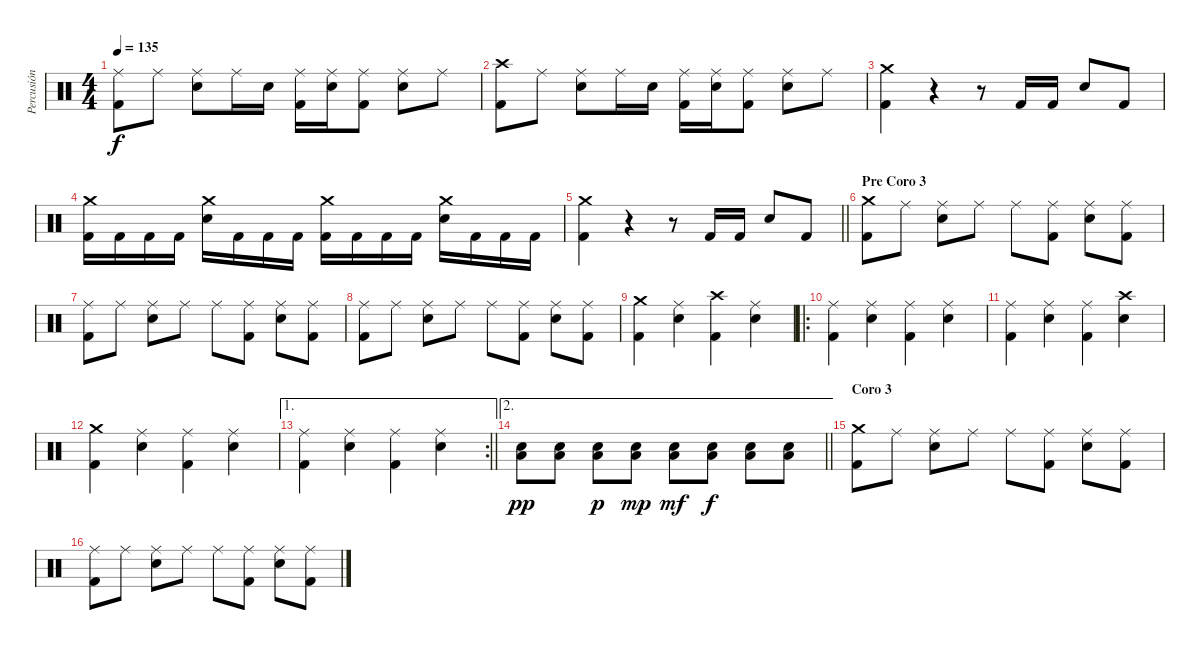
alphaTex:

\track ("Percusión" "Percusión") {instrument percussion}
\staff {score}
\articulation defaults
\ts (4 4)
\tempo 135
\clef neutral
\ks c
("Ride (middle)" "Kick (hit) 2").8{dy f} "Ride (middle)".8 ("Ride (middle)" "Electric Snare (hit)").8 "Ride (middle)".16 "Electric Snare (hit)".16 ("Ride (middle)" "Kick (hit) 2").16 ("Ride (middle)" "Electric Snare (hit)").16 ("Ride (middle)" "Kick (hit) 2").8 ("Ride (middle)" "Electric Snare (hit)").8 "Ride (middle)".8 |
("Crash high (hit)" "Kick (hit) 2").8 "Ride (middle)".8 ("Ride (middle)" "Electric Snare (hit)").8 "Ride (middle)".16 "Electric Snare (hit)".16 ("Ride (middle)" "Kick (hit) 2").16 ("Ride (middle)" "Electric Snare (hit)").16 ("Ride (middle)" "Kick (hit) 2").8 ("Ride (middle)" "Electric Snare (hit)").8 "Ride (middle)".8 |
("Crash medium (hit)" "Kick (hit) 2").4 r.4 r.8 "Kick (hit) 2".16 "Kick (hit) 2".16 "Electric Snare (hit)".8 "Kick (hit) 2".8 |
("Crash medium (hit)" "Kick (hit) 2").16 "Kick (hit) 2".16 "Kick (hit) 2".16 "Kick (hit) 2".16 ("Crash medium (hit)" "Electric Snare (hit)").16 "Kick (hit) 2".16 "Kick (hit) 2".16 "Kick (hit) 2".16 ("Crash medium (hit)" "Kick (hit) 2").16 "Kick (hit) 2".16 "Kick (hit) 2".16 "Kick (hit) 2".16 ("Crash medium (hit)" "Electric Snare (hit)").16 "Kick (hit) 2".16 "Kick (hit) 2".16 "Kick (hit) 2".16 |
\barLineRight lightlight
("Crash medium (hit)" "Kick (hit) 2").4 r.4 r.8 "Kick (hit) 2".16 "Kick (hit) 2".16 "Electric Snare (hit)".8 "Kick (hit) 2".8 |
\section ("" "Pre Coro 3")
("Crash medium (hit)" "Kick (hit) 2").8 "Ride (middle)".8 ("Ride (middle)" "Electric Snare (hit)").8 "Ride (middle)".8 "Ride (middle)".8 ("Ride (middle)" "Kick (hit) 2").8 ("Ride (middle)" "Electric Snare (hit)").8 ("Ride (middle)" "Kick (hit) 2").8 |
("Ride (middle)" "Kick (hit) 2").8 "Ride (middle)".8 ("Ride (middle)" "Electric Snare (hit)").8 "Ride (middle)".8 "Ride (middle)".8 ("Ride (middle)" "Kick (hit) 2").8 ("Ride (middle)" "Electric Snare (hit)").8 ("Ride (middle)" "Kick (hit) 2").8 |
("Ride (middle)" "Kick (hit) 2").8 "Ride (middle)".8 ("Ride (middle)" "Electric Snare (hit)").8 "Ride (middle)".8 "Ride (middle)".8 ("Ride (middle)" "Kick (hit) 2").8 ("Ride (middle)" "Electric Snare (hit)").8 ("Ride (middle)" "Kick (hit) 2").8 |
("Crash medium (hit)" "Kick (hit) 2").4 ("Ride (middle)" "Electric Snare (hit)").4 ("Crash high (hit)" "Kick (hit) 2").4 ("Ride (middle)" "Electric Snare (hit)").4 |
\ro
("Ride (middle)" "Kick (hit) 2").4 ("Ride (middle)" "Electric Snare (hit)").4 ("Ride (middle)" "Kick (hit) 2").4 ("Ride (middle)" "Electric Snare (hit)").4 |
("Ride (middle)" "Kick (hit) 2").4 ("Ride (middle)" "Electric Snare (hit)").4 ("Ride (middle)" "Kick (hit) 2").4 ("Crash high (hit)" "Electric Snare (hit)").4 |
("Crash medium (hit)" "Kick (hit) 2").4 ("Ride (middle)" "Electric Snare (hit)").4 ("Ride (middle)" "Kick (hit) 2").4 ("Ride (middle)" "Electric Snare (hit)").4 |
\ae 1
\rc 2
\barLineRight lightlight
("Ride (middle)" "Kick (hit) 2").4 ("Ride (middle)" "Electric Snare (hit)").4 ("Ride (middle)" "Kick (hit) 2").4 ("Ride (middle)" "Electric Snare (hit)").4 |
\ae 2
\barLineRight lightlight
("Low Floor Tom (hit)" "Electric Snare (hit)").8{dy pp} ("Low Floor Tom (hit)" "Electric Snare (hit)").8 ("Low Floor Tom (hit)" "Electric Snare (hit)").8{dy p} ("Low Floor Tom (hit)" "Electric Snare (hit)").8{dy mp} ("Low Floor Tom (hit)" "Electric Snare (hit)").8{dy mf} ("Low Floor Tom (hit)" "Electric Snare (hit)").8{dy f} ("Low Floor Tom (hit)" "Electric Snare (hit)").8 ("Low Floor Tom (hit)" "Electric Snare (hit)").8 |
\section ("" "Coro 3")
("Crash medium (hit)" "Kick (hit) 2").8 "Ride (middle)".8 ("Ride (middle)" "Electric Snare (hit)").8 "Ride (middle)".8 "Ride (middle)".8 ("Ride (middle)" "Kick (hit) 2").8 ("Ride (middle)" "Electric Snare (hit)").8 ("Ride (middle)" "Kick (hit) 2").8 |
("Ride (middle)" "Kick (hit) 2").8 "Ride (middle)".8 ("Ride (middle)" "Electric Snare (hit)").8 "Ride (middle)".8 "Ride (middle)".8 ("Ride (middle)" "Kick (hit) 2").8 ("Ride (middle)" "Electric Snare (hit)").8 ("Ride (middle)" "Kick (hit) 2").8
